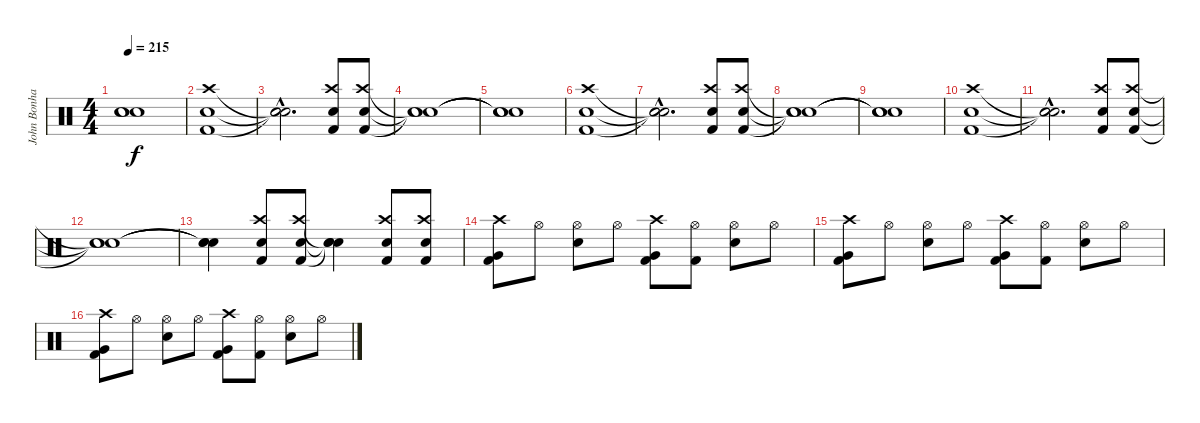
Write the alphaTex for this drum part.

\track ("John Bonham" "John Bonha") {instrument percussion}
\staff {score}
\articulation defaults
\ts (4 4)
\tempo 215
\clef neutral
\ks c
("Snare (hit)"{t} "Snare (hit)"{t} "Snare (hit)"{t}).1{dy f} |
("Crash high (hit)" "Snare (hit) 2" "Kick (hit) 2").1 |
("Snare (hit)"{hac t} "Snare (hit)"{hac t} "Snare (hit)"{hac t}).2{d} ("Crash high (hit)" "Snare (hit) 2" "Kick (hit) 2").8 ("Crash high (hit)" "Snare (hit) 2" "Kick (hit) 2").8 |
("Snare (hit)"{t} "Snare (hit)"{t} "Snare (hit)"{t}).1 |
("Snare (hit)"{t} "Snare (hit)"{t} "Snare (hit)"{t}).1 |
("Crash high (hit)" "Snare (hit) 2" "Kick (hit) 2").1 |
("Snare (hit)"{hac t} "Snare (hit)"{hac t} "Snare (hit)"{hac t}).2{d} ("Crash high (hit)" "Snare (hit) 2" "Kick (hit) 2").8 ("Crash high (hit)" "Snare (hit) 2" "Kick (hit) 2").8 |
("Snare (hit)"{t} "Snare (hit)"{t} "Snare (hit)"{t}).1 |
("Snare (hit)"{t} "Snare (hit)"{t} "Snare (hit)"{t}).1 |
("Crash high (hit)" "Snare (hit) 2" "Kick (hit) 2").1 |
("Snare (hit)"{hac t} "Snare (hit)"{hac t} "Snare (hit)"{hac t}).2{d} ("Crash high (hit)" "Snare (hit) 2" "Kick (hit) 2").8 ("Crash high (hit)" "Snare (hit) 2" "Kick (hit) 2").8 |
("Snare (hit)"{t} "Snare (hit)"{t} "Snare (hit)"{t}).1 |
("Snare (hit)"{t} "Snare (hit)"{t} "Snare (hit)"{t}).4 ("Crash high (hit)" "Snare (hit) 2" "Kick (hit) 2").8 ("Crash high (hit)" "Snare (hit) 2" "Kick (hit) 2").8 ("Snare (hit)"{t} "Snare (hit)"{t} "Snare (hit)"{t}).4 ("Crash high (hit)" "Snare (hit) 2" "Kick (hit) 2").8 ("Crash high (hit)" "Snare (hit) 2" "Kick (hit) 2").8 |
("Crash high (hit)" "Very Low Tom (hit)" "Kick (hit) 2").8 "Hi-Hat (open)".8 ("Hi-Hat (open)" "Snare (hit) 2").8 "Hi-Hat (open)".8 ("Crash high (hit)" "Very Low Tom (hit)" "Kick (hit) 2").8 ("Hi-Hat (open)" "Kick (hit) 2").8 ("Hi-Hat (open)" "Snare (hit) 2").8 "Hi-Hat (open)".8 |
("Crash high (hit)" "Very Low Tom (hit)" "Kick (hit) 2").8 "Hi-Hat (open)".8 ("Hi-Hat (open)" "Snare (hit) 2").8 "Hi-Hat (open)".8 ("Crash high (hit)" "Very Low Tom (hit)" "Kick (hit) 2").8 ("Hi-Hat (open)" "Kick (hit) 2").8 ("Hi-Hat (open)" "Snare (hit) 2").8 "Hi-Hat (open)".8 |
("Crash high (hit)" "Very Low Tom (hit)" "Kick (hit) 2").8 "Hi-Hat (open)".8 ("Hi-Hat (open)" "Snare (hit) 2").8 "Hi-Hat (open)".8 ("Crash high (hit)" "Very Low Tom (hit)" "Kick (hit) 2").8 ("Hi-Hat (open)" "Kick (hit) 2").8 ("Hi-Hat (open)" "Snare (hit) 2").8 "Hi-Hat (open)".8
